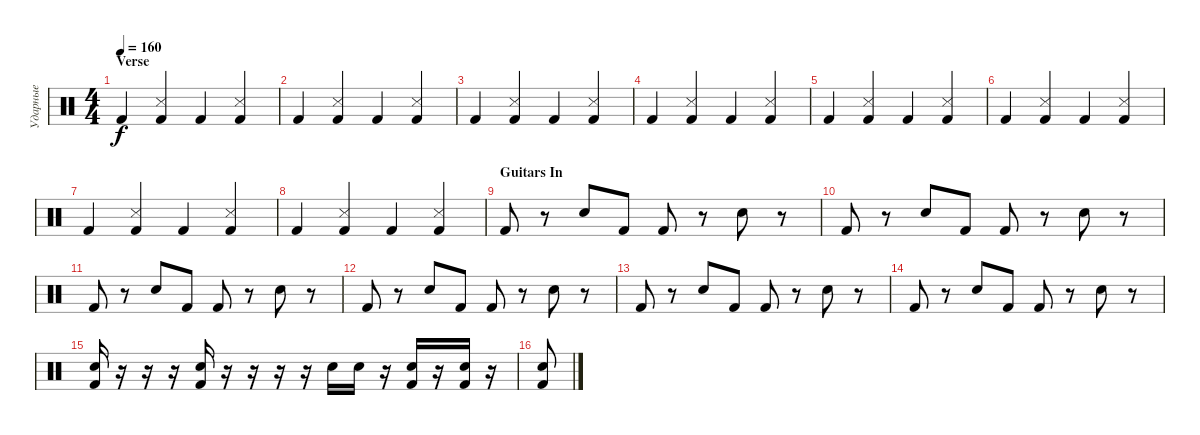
\track ("Ударные" "Ударные") {instrument percussion}
\staff {score}
\articulation defaults
\ts (4 4)
\section ("" "Verse")
\tempo 160
\clef neutral
\ks c "Kick (hit) 2".4{dy f}
("Snare (side stick) 3" "Kick (hit) 2").4 "Kick (hit) 2".4 ("Snare (side stick) 3" "Kick (hit) 2").4 |
"Kick (hit) 2".4 ("Snare (side stick) 3" "Kick (hit) 2").4 "Kick (hit) 2".4 ("Snare (side stick) 3" "Kick (hit) 2").4 |
"Kick (hit) 2".4 ("Snare (side stick) 3" "Kick (hit) 2").4 "Kick (hit) 2".4 ("Snare (side stick) 3" "Kick (hit) 2").4 |
"Kick (hit) 2".4 ("Snare (side stick) 3" "Kick (hit) 2").4 "Kick (hit) 2".4 ("Snare (side stick) 3" "Kick (hit) 2").4 |
"Kick (hit) 2".4 ("Snare (side stick) 3" "Kick (hit) 2").4 "Kick (hit) 2".4 ("Snare (side stick) 3" "Kick (hit) 2").4 |
"Kick (hit) 2".4 ("Snare (side stick) 3" "Kick (hit) 2").4 "Kick (hit) 2".4 ("Snare (side stick) 3" "Kick (hit) 2").4 |
"Kick (hit) 2".4 ("Snare (side stick) 3" "Kick (hit) 2").4 "Kick (hit) 2".4 ("Snare (side stick) 3" "Kick (hit) 2").4 |
"Kick (hit) 2".4 ("Snare (side stick) 3" "Kick (hit) 2").4 "Kick (hit) 2".4 ("Snare (side stick) 3" "Kick (hit) 2").4 |
\section ("" "Guitars In")
"Kick (hit) 2".8 r.8 "Electric Snare (hit)".8 "Kick (hit) 2".8 "Kick (hit) 2".8 r.8 "Electric Snare (hit)".8 r.8 |
"Kick (hit) 2".8 r.8 "Electric Snare (hit)".8 "Kick (hit) 2".8 "Kick (hit) 2".8 r.8 "Electric Snare (hit)".8 r.8 |
"Kick (hit) 2".8 r.8 "Electric Snare (hit)".8 "Kick (hit) 2".8 "Kick (hit) 2".8 r.8 "Electric Snare (hit)".8 r.8 |
"Kick (hit) 2".8 r.8 "Electric Snare (hit)".8 "Kick (hit) 2".8 "Kick (hit) 2".8 r.8 "Electric Snare (hit)".8 r.8 |
"Kick (hit) 2".8 r.8 "Electric Snare (hit)".8 "Kick (hit) 2".8 "Kick (hit) 2".8 r.8 "Electric Snare (hit)".8 r.8 |
"Kick (hit) 2".8 r.8 "Electric Snare (hit)".8 "Kick (hit) 2".8 "Kick (hit) 2".8 r.8 "Electric Snare (hit)".8 r.8 |
("Kick (hit) 2" "Electric Snare (hit)").16 r.16 r.16 r.16 ("Kick (hit) 2" "Electric Snare (hit)").16 r.16 r.16 r.16 r.16 "Electric Snare (hit)".16 "Electric Snare (hit)".16 r.16 ("Kick (hit) 2" "Electric Snare (hit)").16 r.16 ("Kick (hit) 2" "Electric Snare (hit)").16 r.16 |
("Kick (hit) 2" "Electric Snare (hit)").8
